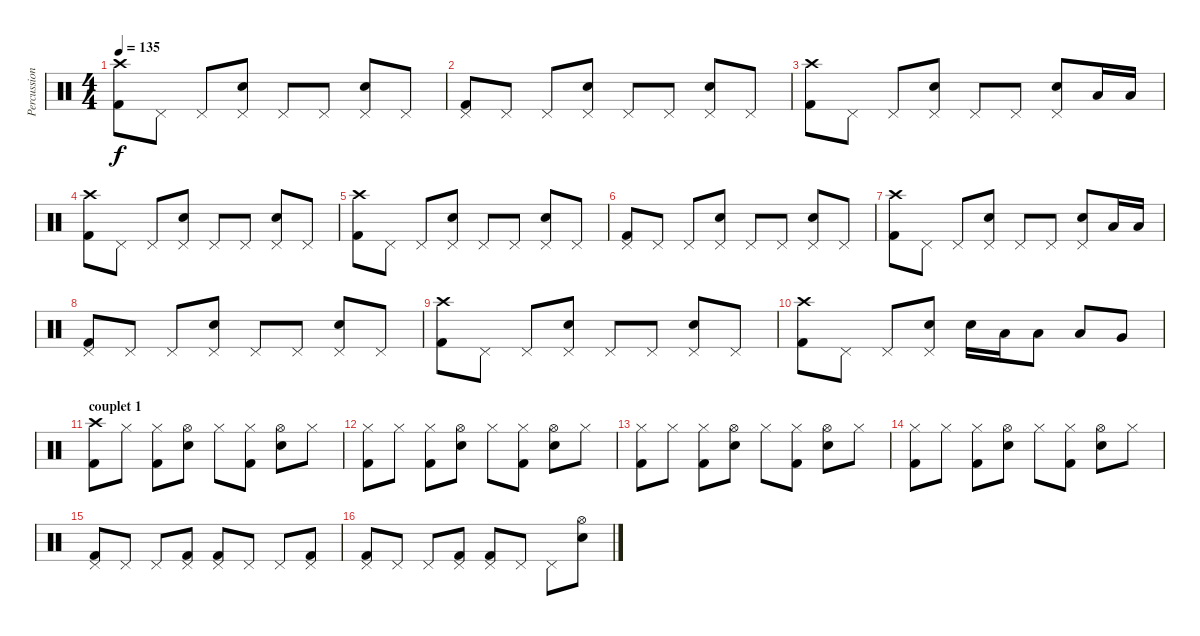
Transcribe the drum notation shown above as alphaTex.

\track ("Percussions" "Percussion") {instrument percussion}
\staff {score}
\articulation defaults
\ts (4 4)
\tempo 135
\clef neutral
\ks c
("Crash high (hit)" "Kick (hit) 2").8{dy f} "Pedal Hi-Hat (hit)".8 "Pedal Hi-Hat (hit)".8 ("Pedal Hi-Hat (hit)" "Snare (hit) 2").8 "Pedal Hi-Hat (hit)".8 "Pedal Hi-Hat (hit)".8 ("Pedal Hi-Hat (hit)" "Snare (hit) 2").8 "Pedal Hi-Hat (hit)".8 |
("Pedal Hi-Hat (hit)" "Kick (hit) 2").8 "Pedal Hi-Hat (hit)".8 "Pedal Hi-Hat (hit)".8 ("Pedal Hi-Hat (hit)" "Snare (hit) 2").8 "Pedal Hi-Hat (hit)".8 "Pedal Hi-Hat (hit)".8 ("Pedal Hi-Hat (hit)" "Snare (hit) 2").8 "Pedal Hi-Hat (hit)".8 |
("Crash high (hit)" "Kick (hit) 2").8 "Pedal Hi-Hat (hit)".8 "Pedal Hi-Hat (hit)".8 ("Pedal Hi-Hat (hit)" "Snare (hit) 2").8 "Pedal Hi-Hat (hit)".8 "Pedal Hi-Hat (hit)".8 ("Pedal Hi-Hat (hit)" "Snare (hit) 2").8 "Low Tom (hit)".16 "Low Tom (hit)".16 |
("Crash high (hit)" "Kick (hit) 2").8 "Pedal Hi-Hat (hit)".8 "Pedal Hi-Hat (hit)".8 ("Pedal Hi-Hat (hit)" "Snare (hit) 2").8 "Pedal Hi-Hat (hit)".8 "Pedal Hi-Hat (hit)".8 ("Pedal Hi-Hat (hit)" "Snare (hit) 2").8 "Pedal Hi-Hat (hit)".8 |
("Crash high (hit)" "Kick (hit) 2").8 "Pedal Hi-Hat (hit)".8 "Pedal Hi-Hat (hit)".8 ("Pedal Hi-Hat (hit)" "Snare (hit) 2").8 "Pedal Hi-Hat (hit)".8 "Pedal Hi-Hat (hit)".8 ("Pedal Hi-Hat (hit)" "Snare (hit) 2").8 "Pedal Hi-Hat (hit)".8 |
("Pedal Hi-Hat (hit)" "Kick (hit) 2").8 "Pedal Hi-Hat (hit)".8 "Pedal Hi-Hat (hit)".8 ("Pedal Hi-Hat (hit)" "Snare (hit) 2").8 "Pedal Hi-Hat (hit)".8 "Pedal Hi-Hat (hit)".8 ("Pedal Hi-Hat (hit)" "Snare (hit) 2").8 "Pedal Hi-Hat (hit)".8 |
("Crash high (hit)" "Kick (hit) 2").8 "Pedal Hi-Hat (hit)".8 "Pedal Hi-Hat (hit)".8 ("Pedal Hi-Hat (hit)" "Snare (hit) 2").8 "Pedal Hi-Hat (hit)".8 "Pedal Hi-Hat (hit)".8 ("Pedal Hi-Hat (hit)" "Snare (hit) 2").8 "Low Tom (hit)".16 "Low Tom (hit)".16 |
("Pedal Hi-Hat (hit)" "Kick (hit) 2").8 "Pedal Hi-Hat (hit)".8 "Pedal Hi-Hat (hit)".8 ("Pedal Hi-Hat (hit)" "Snare (hit) 2").8 "Pedal Hi-Hat (hit)".8 "Pedal Hi-Hat (hit)".8 ("Pedal Hi-Hat (hit)" "Snare (hit) 2").8 "Pedal Hi-Hat (hit)".8 |
("Crash high (hit)" "Kick (hit) 2").8 "Pedal Hi-Hat (hit)".8 "Pedal Hi-Hat (hit)".8 ("Pedal Hi-Hat (hit)" "Snare (hit) 2").8 "Pedal Hi-Hat (hit)".8 "Pedal Hi-Hat (hit)".8 ("Pedal Hi-Hat (hit)" "Snare (hit) 2").8 "Pedal Hi-Hat (hit)".8 |
("Crash high (hit)" "Kick (hit) 2").8 "Pedal Hi-Hat (hit)".8 "Pedal Hi-Hat (hit)".8 ("Pedal Hi-Hat (hit)" "Snare (hit) 2").8 "Snare (hit) 2".16 "Low Tom (hit)".16 "Low Tom (hit)".8 "Low Tom (hit)".8 "Very Low Tom (hit)".8 |
\section ("" "couplet 1")
("Crash high (hit)" "Kick (hit) 2").8 "Hi-Hat (closed)".8 ("Hi-Hat (closed)" "Kick (hit) 2").8 ("Hi-Hat (open)" "Snare (hit) 2").8 "Hi-Hat (closed)".8 ("Hi-Hat (closed)" "Kick (hit) 2").8 ("Hi-Hat (open)" "Snare (hit) 2").8 "Hi-Hat (closed)".8 |
("Hi-Hat (closed)" "Kick (hit) 2").8 "Hi-Hat (closed)".8 ("Hi-Hat (closed)" "Kick (hit) 2").8 ("Hi-Hat (open)" "Snare (hit) 2").8 "Hi-Hat (closed)".8 ("Hi-Hat (closed)" "Kick (hit) 2").8 ("Hi-Hat (open)" "Snare (hit) 2").8 "Hi-Hat (closed)".8 |
("Hi-Hat (closed)" "Kick (hit) 2").8 "Hi-Hat (closed)".8 ("Hi-Hat (closed)" "Kick (hit) 2").8 ("Hi-Hat (open)" "Snare (hit) 2").8 "Hi-Hat (closed)".8 ("Hi-Hat (closed)" "Kick (hit) 2").8 ("Hi-Hat (open)" "Snare (hit) 2").8 "Hi-Hat (closed)".8 |
("Hi-Hat (closed)" "Kick (hit) 2").8 "Hi-Hat (closed)".8 ("Hi-Hat (closed)" "Kick (hit) 2").8 ("Hi-Hat (open)" "Snare (hit) 2").8 "Hi-Hat (closed)".8 ("Hi-Hat (closed)" "Kick (hit) 2").8 ("Hi-Hat (open)" "Snare (hit) 2").8 "Hi-Hat (closed)".8 |
("Pedal Hi-Hat (hit)" "Kick (hit) 2").8 "Pedal Hi-Hat (hit)".8 "Pedal Hi-Hat (hit)".8 ("Pedal Hi-Hat (hit)" "Kick (hit) 2").8 ("Pedal Hi-Hat (hit)" "Kick (hit) 2").8 "Pedal Hi-Hat (hit)".8 "Pedal Hi-Hat (hit)".8 ("Pedal Hi-Hat (hit)" "Kick (hit) 2").8 |
("Pedal Hi-Hat (hit)" "Kick (hit) 2").8 "Pedal Hi-Hat (hit)".8 "Pedal Hi-Hat (hit)".8 ("Pedal Hi-Hat (hit)" "Kick (hit) 2").8 ("Pedal Hi-Hat (hit)" "Kick (hit) 2").8 "Pedal Hi-Hat (hit)".8 "Pedal Hi-Hat (hit)".8 ("Hi-Hat (open)" "Snare (hit) 2").8
